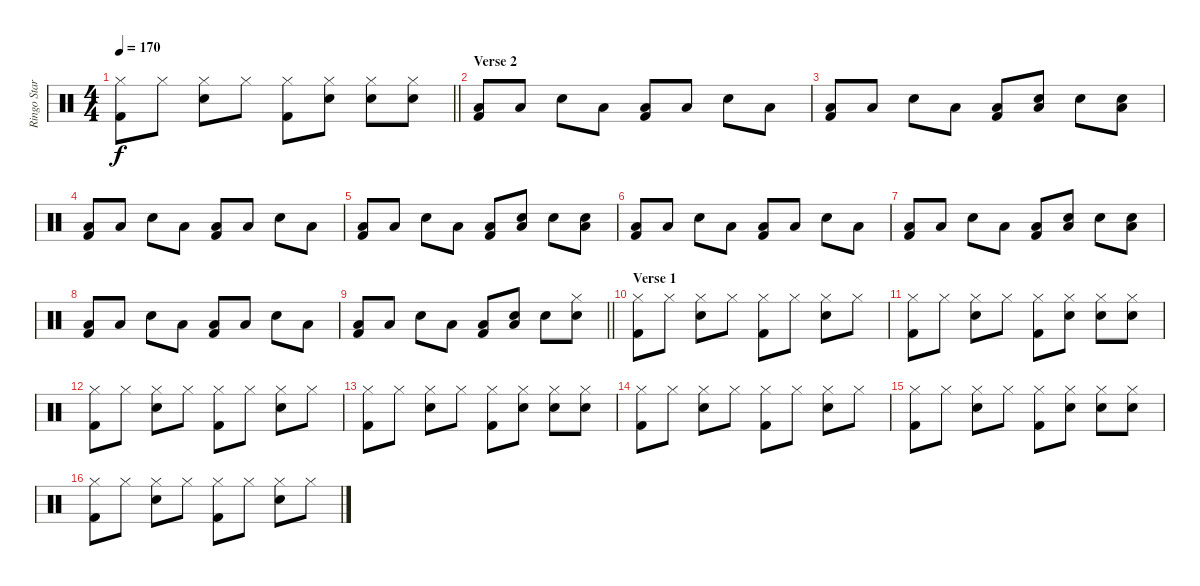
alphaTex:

\track ("Ringo Star (Thomas)" "Ringo Star") {instrument percussion}
\staff {score}
\articulation defaults
\ts (4 4)
\tempo 170
\clef neutral
\barLineRight lightlight
\ks c
("Hi-Hat (closed)" "Kick (hit) 2").8{dy f} "Hi-Hat (closed)".8 ("Hi-Hat (closed)" "Snare (hit) 2").8 "Hi-Hat (closed)".8 ("Hi-Hat (closed)" "Kick (hit) 2").8 ("Hi-Hat (closed)" "Snare (hit) 2").8 ("Hi-Hat (closed)" "Snare (hit) 2").8 ("Hi-Hat (closed)" "Snare (hit) 2").8 |
\section ("" "Verse 2")
("Low Tom (hit)" "Kick (hit) 2").8 "Low Tom (hit)".8 "Snare (hit) 2".8 "Low Tom (hit)".8 ("Low Tom (hit)" "Kick (hit) 2").8 "Low Tom (hit)".8 "Snare (hit) 2".8 "Low Tom (hit)".8 |
("Low Tom (hit)" "Kick (hit) 2").8 "Low Tom (hit)".8 "Snare (hit) 2".8 "Low Tom (hit)".8 ("Low Tom (hit)" "Kick (hit) 2").8 ("Low Tom (hit)" "Snare (hit) 2").8 "Snare (hit) 2".8 ("Low Tom (hit)" "Snare (hit) 2").8 |
("Low Tom (hit)" "Kick (hit) 2").8 "Low Tom (hit)".8 "Snare (hit) 2".8 "Low Tom (hit)".8 ("Low Tom (hit)" "Kick (hit) 2").8 "Low Tom (hit)".8 "Snare (hit) 2".8 "Low Tom (hit)".8 |
("Low Tom (hit)" "Kick (hit) 2").8 "Low Tom (hit)".8 "Snare (hit) 2".8 "Low Tom (hit)".8 ("Low Tom (hit)" "Kick (hit) 2").8 ("Low Tom (hit)" "Snare (hit) 2").8 "Snare (hit) 2".8 ("Low Tom (hit)" "Snare (hit) 2").8 |
("Low Tom (hit)" "Kick (hit) 2").8 "Low Tom (hit)".8 "Snare (hit) 2".8 "Low Tom (hit)".8 ("Low Tom (hit)" "Kick (hit) 2").8 "Low Tom (hit)".8 "Snare (hit) 2".8 "Low Tom (hit)".8 |
("Low Tom (hit)" "Kick (hit) 2").8 "Low Tom (hit)".8 "Snare (hit) 2".8 "Low Tom (hit)".8 ("Low Tom (hit)" "Kick (hit) 2").8 ("Low Tom (hit)" "Snare (hit) 2").8 "Snare (hit) 2".8 ("Low Tom (hit)" "Snare (hit) 2").8 |
("Low Tom (hit)" "Kick (hit) 2").8 "Low Tom (hit)".8 "Snare (hit) 2".8 "Low Tom (hit)".8 ("Low Tom (hit)" "Kick (hit) 2").8 "Low Tom (hit)".8 "Snare (hit) 2".8 "Low Tom (hit)".8 |
\barLineRight lightlight
("Low Tom (hit)" "Kick (hit) 2").8 "Low Tom (hit)".8 "Snare (hit) 2".8 "Low Tom (hit)".8 ("Low Tom (hit)" "Kick (hit) 2").8 ("Low Tom (hit)" "Snare (hit) 2").8 "Snare (hit) 2".8 ("Hi-Hat (closed)" "Snare (hit) 2").8 |
\section ("" "Verse 1")
("Hi-Hat (closed)" "Kick (hit) 2").8 "Hi-Hat (closed)".8 ("Hi-Hat (closed)" "Snare (hit) 2").8 "Hi-Hat (closed)".8 ("Hi-Hat (closed)" "Kick (hit) 2").8 "Hi-Hat (closed)".8 ("Hi-Hat (closed)" "Snare (hit) 2").8 "Hi-Hat (closed)".8 |
("Hi-Hat (closed)" "Kick (hit) 2").8 "Hi-Hat (closed)".8 ("Hi-Hat (closed)" "Snare (hit) 2").8 "Hi-Hat (closed)".8 ("Hi-Hat (closed)" "Kick (hit) 2").8 ("Hi-Hat (closed)" "Snare (hit) 2").8 ("Hi-Hat (closed)" "Snare (hit) 2").8 ("Hi-Hat (closed)" "Snare (hit) 2").8 |
("Hi-Hat (closed)" "Kick (hit) 2").8 "Hi-Hat (closed)".8 ("Hi-Hat (closed)" "Snare (hit) 2").8 "Hi-Hat (closed)".8 ("Hi-Hat (closed)" "Kick (hit) 2").8 "Hi-Hat (closed)".8 ("Hi-Hat (closed)" "Snare (hit) 2").8 "Hi-Hat (closed)".8 |
("Hi-Hat (closed)" "Kick (hit) 2").8 "Hi-Hat (closed)".8 ("Hi-Hat (closed)" "Snare (hit) 2").8 "Hi-Hat (closed)".8 ("Hi-Hat (closed)" "Kick (hit) 2").8 ("Hi-Hat (closed)" "Snare (hit) 2").8 ("Hi-Hat (closed)" "Snare (hit) 2").8 ("Hi-Hat (closed)" "Snare (hit) 2").8 |
("Hi-Hat (closed)" "Kick (hit) 2").8 "Hi-Hat (closed)".8 ("Hi-Hat (closed)" "Snare (hit) 2").8 "Hi-Hat (closed)".8 ("Hi-Hat (closed)" "Kick (hit) 2").8 "Hi-Hat (closed)".8 ("Hi-Hat (closed)" "Snare (hit) 2").8 "Hi-Hat (closed)".8 |
("Hi-Hat (closed)" "Kick (hit) 2").8 "Hi-Hat (closed)".8 ("Hi-Hat (closed)" "Snare (hit) 2").8 "Hi-Hat (closed)".8 ("Hi-Hat (closed)" "Kick (hit) 2").8 ("Hi-Hat (closed)" "Snare (hit) 2").8 ("Hi-Hat (closed)" "Snare (hit) 2").8 ("Hi-Hat (closed)" "Snare (hit) 2").8 |
("Hi-Hat (closed)" "Kick (hit) 2").8 "Hi-Hat (closed)".8 ("Hi-Hat (closed)" "Snare (hit) 2").8 "Hi-Hat (closed)".8 ("Hi-Hat (closed)" "Kick (hit) 2").8 "Hi-Hat (closed)".8 ("Hi-Hat (closed)" "Snare (hit) 2").8 "Hi-Hat (closed)".8
